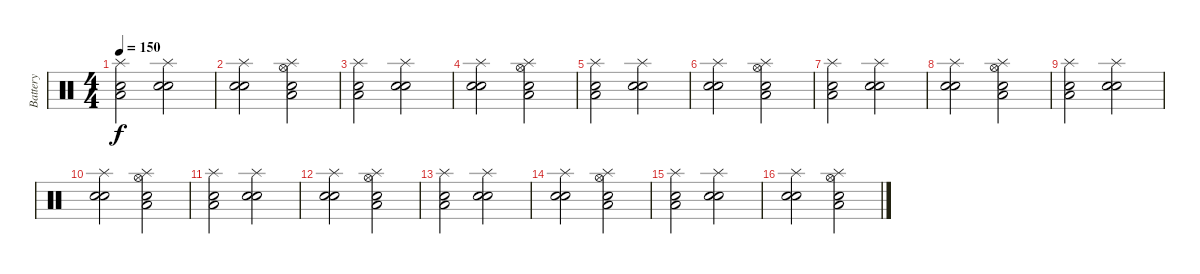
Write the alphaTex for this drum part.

\track ("Battery" "Battery") {instrument percussion}
\staff {score}
\articulation defaults
\ts (4 4)
\tempo 150
\clef neutral
\ks c
("Snare (hit) 2" "Low Floor Tom (hit)" "Splash (hit)").2{dy f} ("Snare (hit) 2" "Electric Snare (hit)" "Splash (hit)").2 |
("Snare (hit) 2" "Electric Snare (hit)" "Splash (hit)").2 ("Snare (hit) 2" "Low Floor Tom (hit)" "Splash (hit)" "Hi-Hat (open)").2 |
("Snare (hit) 2" "Low Floor Tom (hit)" "Splash (hit)").2 ("Snare (hit) 2" "Electric Snare (hit)" "Splash (hit)").2 |
("Snare (hit) 2" "Electric Snare (hit)" "Splash (hit)").2 ("Snare (hit) 2" "Low Floor Tom (hit)" "Splash (hit)" "Hi-Hat (open)").2 |
("Snare (hit) 2" "Low Floor Tom (hit)" "Splash (hit)").2 ("Snare (hit) 2" "Electric Snare (hit)" "Splash (hit)").2 |
("Snare (hit) 2" "Electric Snare (hit)" "Splash (hit)").2 ("Snare (hit) 2" "Low Floor Tom (hit)" "Splash (hit)" "Hi-Hat (open)").2 |
("Snare (hit) 2" "Low Floor Tom (hit)" "Splash (hit)").2 ("Snare (hit) 2" "Electric Snare (hit)" "Splash (hit)").2 |
("Snare (hit) 2" "Electric Snare (hit)" "Splash (hit)").2 ("Snare (hit) 2" "Low Floor Tom (hit)" "Splash (hit)" "Hi-Hat (open)").2 |
("Snare (hit) 2" "Low Floor Tom (hit)" "Splash (hit)").2 ("Snare (hit) 2" "Electric Snare (hit)" "Splash (hit)").2 |
("Snare (hit) 2" "Electric Snare (hit)" "Splash (hit)").2 ("Snare (hit) 2" "Low Floor Tom (hit)" "Splash (hit)" "Hi-Hat (open)").2 |
("Snare (hit) 2" "Low Floor Tom (hit)" "Splash (hit)").2 ("Snare (hit) 2" "Electric Snare (hit)" "Splash (hit)").2 |
("Snare (hit) 2" "Electric Snare (hit)" "Splash (hit)").2 ("Snare (hit) 2" "Low Floor Tom (hit)" "Splash (hit)" "Hi-Hat (open)").2 |
("Snare (hit) 2" "Low Floor Tom (hit)" "Splash (hit)").2 ("Snare (hit) 2" "Electric Snare (hit)" "Splash (hit)").2 |
("Snare (hit) 2" "Electric Snare (hit)" "Splash (hit)").2 ("Snare (hit) 2" "Low Floor Tom (hit)" "Splash (hit)" "Hi-Hat (open)").2 |
("Snare (hit) 2" "Low Floor Tom (hit)" "Splash (hit)").2 ("Snare (hit) 2" "Electric Snare (hit)" "Splash (hit)").2 |
("Snare (hit) 2" "Electric Snare (hit)" "Splash (hit)").2 ("Snare (hit) 2" "Low Floor Tom (hit)" "Splash (hit)" "Hi-Hat (open)").2
